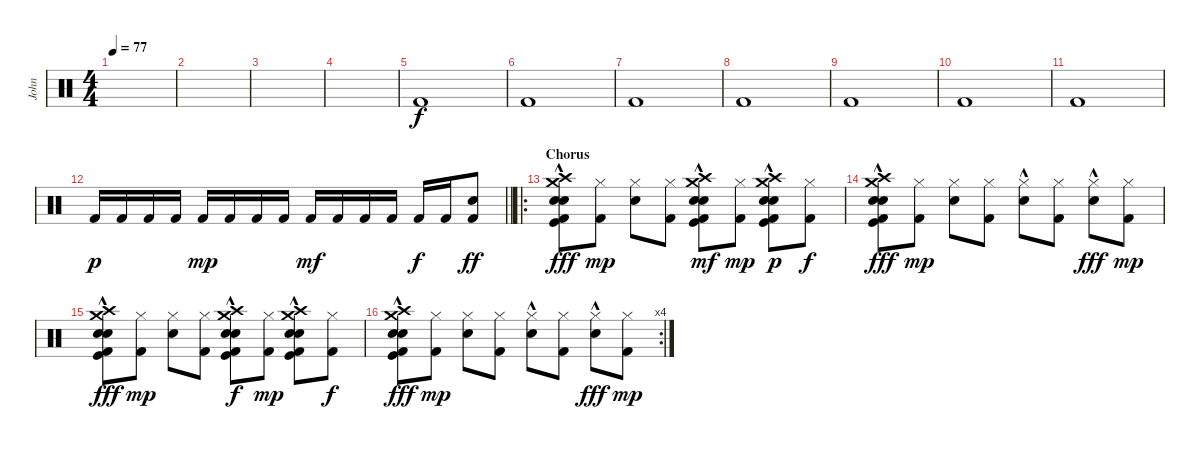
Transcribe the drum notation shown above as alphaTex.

\track ("John" "John") {instrument percussion}
\staff {score}
\articulation defaults
\ts (4 4)
\tempo 77
\clef neutral
\ks c
|
|
|
|
"Kick (hit) 2".1{dy f} |
"Kick (hit) 2".1 |
"Kick (hit) 2".1 |
"Kick (hit) 2".1 |
"Kick (hit) 2".1 |
"Kick (hit) 2".1 |
"Kick (hit) 2".1 |
\barLineRight lightlight "Kick (hit) 2".16{dy p} "Kick (hit) 2".16 "Kick (hit) 2".16 "Kick (hit) 2".16 "Kick (hit) 2".16{dy mp} "Kick (hit) 2".16 "Kick (hit) 2".16 "Kick (hit) 2".16 "Kick (hit) 2".16{dy mf} "Kick (hit) 2".16 "Kick (hit) 2".16 "Kick (hit) 2".16 "Kick (hit) 2".16{dy f} "Kick (hit) 2".16
("Electric Snare (hit)" "Kick (hit) 2").8{dy ff} |
\ro
\section ("" "Chorus")
("Crash medium (hit)"{hac} "Crash high (hit)"{hac} "Kick (hit)"{hac} "Snare (hit) 2"{hac} "Electric Snare (hit)"{hac} "Kick (hit) 2"{hac}).8{dy fff} ("Hi-Hat (closed)" "Kick (hit) 2").8{dy mp} ("Hi-Hat (closed)" "Electric Snare (hit)").8 ("Hi-Hat (closed)" "Kick (hit) 2").8 ("Crash medium (hit)"{hac} "Crash high (hit)"{hac} "Kick (hit)"{hac} "Snare (hit) 2"{hac} "Electric Snare (hit)"{hac} "Kick (hit) 2"{hac}).8{dy mf} ("Hi-Hat (closed)" "Kick (hit) 2").8{dy mp} ("Crash medium (hit)"{hac} "Crash high (hit)"{hac} "Kick (hit)"{hac} "Snare (hit) 2"{hac} "Electric Snare (hit)"{hac} "Kick (hit) 2"{hac}).8{dy p} ("Hi-Hat (closed)" "Kick (hit) 2").8{dy f} |
("Crash medium (hit)"{hac} "Crash high (hit)"{hac} "Kick (hit)"{hac} "Snare (hit) 2"{hac} "Electric Snare (hit)"{hac} "Kick (hit) 2"{hac}).8{dy fff} ("Hi-Hat (closed)" "Kick (hit) 2").8{dy mp} ("Hi-Hat (closed)" "Electric Snare (hit)").8 ("Hi-Hat (closed)" "Kick (hit) 2").8 ("Hi-Hat (closed)"{hac} "Electric Snare (hit)"{hac}).8 ("Hi-Hat (closed)" "Kick (hit) 2").8 ("Hi-Hat (closed)"{hac} "Electric Snare (hit)"{hac}).8{dy fff} ("Hi-Hat (closed)" "Kick (hit) 2").8{dy mp} |
("Crash medium (hit)"{hac} "Crash high (hit)"{hac} "Kick (hit)"{hac} "Snare (hit) 2"{hac} "Electric Snare (hit)"{hac} "Kick (hit) 2"{hac}).8{dy fff} ("Hi-Hat (closed)" "Kick (hit) 2").8{dy mp} ("Hi-Hat (closed)" "Electric Snare (hit)").8 ("Hi-Hat (closed)" "Kick (hit) 2").8 ("Crash medium (hit)"{hac} "Crash high (hit)"{hac} "Kick (hit)"{hac} "Snare (hit) 2"{hac} "Electric Snare (hit)"{hac} "Kick (hit) 2"{hac}).8{dy f} ("Hi-Hat (closed)" "Kick (hit) 2").8{dy mp} ("Crash medium (hit)"{hac} "Crash high (hit)"{hac} "Kick (hit)"{hac} "Snare (hit) 2"{hac} "Electric Snare (hit)"{hac} "Kick (hit) 2"{hac}).8 ("Hi-Hat (closed)" "Kick (hit) 2").8{dy f} |
\rc 4
("Crash medium (hit)"{hac} "Crash high (hit)"{hac} "Kick (hit)"{hac} "Snare (hit) 2"{hac} "Electric Snare (hit)"{hac} "Kick (hit) 2"{hac}).8{dy fff} ("Hi-Hat (closed)" "Kick (hit) 2").8{dy mp} ("Hi-Hat (closed)" "Electric Snare (hit)").8 ("Hi-Hat (closed)" "Kick (hit) 2").8 ("Hi-Hat (closed)"{hac} "Electric Snare (hit)"{hac}).8 ("Hi-Hat (closed)" "Kick (hit) 2").8 ("Hi-Hat (closed)"{hac} "Electric Snare (hit)"{hac}).8{dy fff} ("Hi-Hat (closed)" "Kick (hit) 2").8{dy mp}
